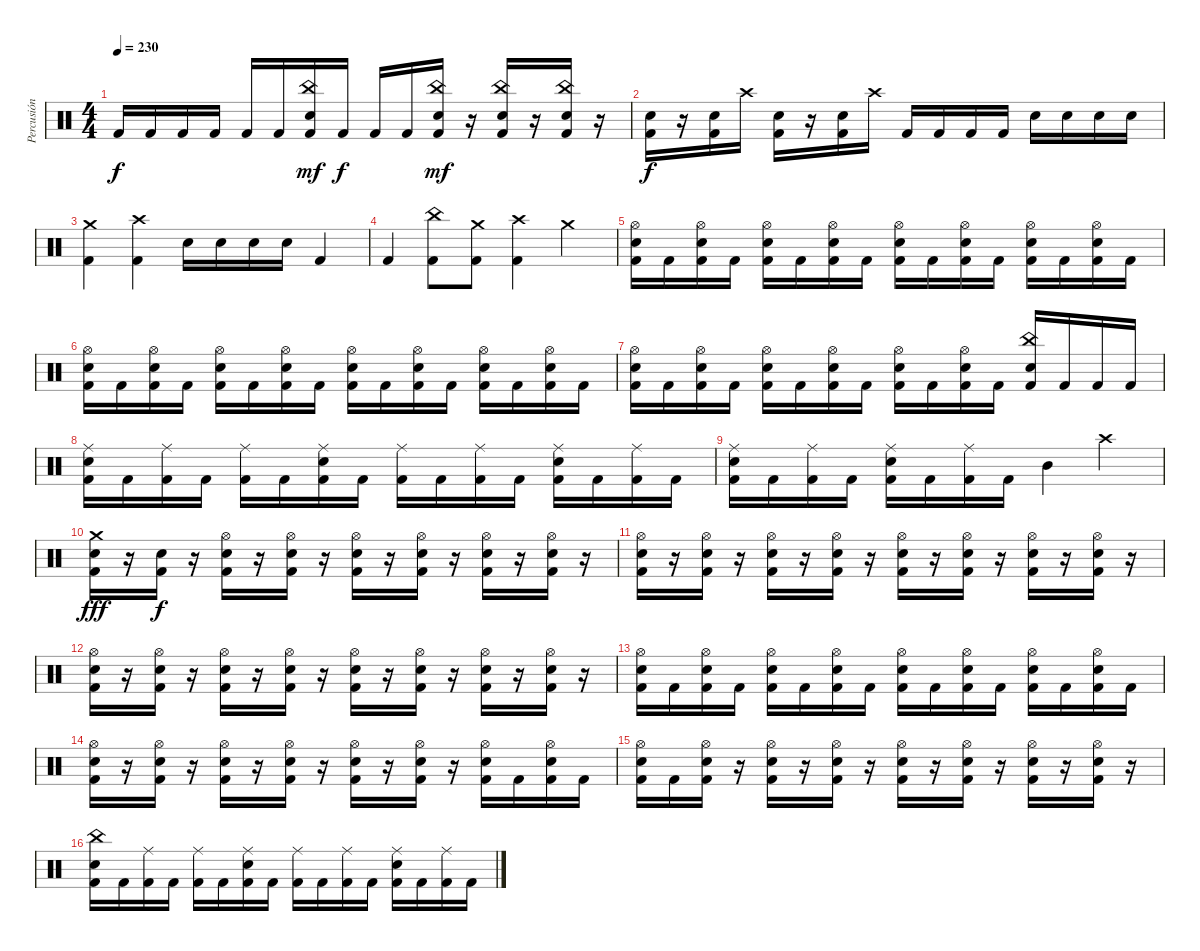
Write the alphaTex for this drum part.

\track ("Percusión" "Percusión") {instrument percussion}
\staff {score}
\articulation defaults
\ts (4 4)
\tempo 230
\clef neutral
\ks c "Kick (hit) 2".16{dy f} "Kick (hit) 2".16 "Kick (hit) 2".16 "Kick (hit) 2".16 "Kick (hit) 2".16 "Kick (hit) 2".16
("China (hit)" "Kick (hit) 2" "Snare (hit) 2").16{dy mf} "Kick (hit) 2".16{dy f} "Kick (hit) 2".16 "Kick (hit) 2".16 ("China (hit)" "Kick (hit) 2" "Snare (hit) 2").16{dy mf} r.16 ("China (hit)" "Kick (hit) 2" "Snare (hit) 2").16 r.16 ("China (hit)" "Kick (hit) 2" "Snare (hit) 2").16 r.16 |
("Kick (hit) 2" "Snare (hit) 2").16{dy f} r.16 ("Kick (hit) 2" "Snare (hit) 2").16 "Crash high (hit)".16 ("Kick (hit) 2" "Snare (hit) 2").16 r.16 ("Kick (hit) 2" "Snare (hit) 2").16 "Crash high (hit)".16 "Kick (hit) 2".16 "Kick (hit) 2".16 "Kick (hit) 2".16 "Kick (hit) 2".16 "Snare (hit) 2".16 "Snare (hit) 2".16 "Snare (hit) 2".16 "Snare (hit) 2".16 |
("Crash medium (hit)" "Kick (hit) 2").4 ("Crash high (hit)" "Kick (hit) 2").4 "Snare (hit) 2".16 "Snare (hit) 2".16 "Snare (hit) 2".16 "Snare (hit) 2".16 "Kick (hit) 2".4 |
"Kick (hit) 2".4 ("China (hit)" "Kick (hit) 2").8 ("Crash medium (hit)" "Kick (hit) 2").8 ("Crash high (hit)" "Kick (hit) 2").4 "Crash medium (hit)".4 |
("Hi-Hat (open)" "Kick (hit) 2" "Snare (hit) 2").16 "Kick (hit) 2".16 ("Hi-Hat (open)" "Kick (hit) 2" "Snare (hit) 2").16 "Kick (hit) 2".16 ("Hi-Hat (open)" "Kick (hit) 2" "Snare (hit) 2").16 "Kick (hit) 2".16 ("Hi-Hat (open)" "Kick (hit) 2" "Snare (hit) 2").16 "Kick (hit) 2".16 ("Hi-Hat (open)" "Kick (hit) 2" "Snare (hit) 2").16 "Kick (hit) 2".16 ("Hi-Hat (open)" "Kick (hit) 2" "Snare (hit) 2").16 "Kick (hit) 2".16 ("Hi-Hat (open)" "Kick (hit) 2" "Snare (hit) 2").16 "Kick (hit) 2".16 ("Hi-Hat (open)" "Kick (hit) 2" "Snare (hit) 2").16 "Kick (hit) 2".16 |
("Hi-Hat (open)" "Kick (hit) 2" "Snare (hit) 2").16 "Kick (hit) 2".16 ("Hi-Hat (open)" "Kick (hit) 2" "Snare (hit) 2").16 "Kick (hit) 2".16 ("Hi-Hat (open)" "Kick (hit) 2" "Snare (hit) 2").16 "Kick (hit) 2".16 ("Hi-Hat (open)" "Kick (hit) 2" "Snare (hit) 2").16 "Kick (hit) 2".16 ("Hi-Hat (open)" "Kick (hit) 2" "Snare (hit) 2").16 "Kick (hit) 2".16 ("Hi-Hat (open)" "Kick (hit) 2" "Snare (hit) 2").16 "Kick (hit) 2".16 ("Hi-Hat (open)" "Kick (hit) 2" "Snare (hit) 2").16 "Kick (hit) 2".16 ("Hi-Hat (open)" "Kick (hit) 2" "Snare (hit) 2").16 "Kick (hit) 2".16 |
("Hi-Hat (open)" "Kick (hit) 2" "Snare (hit) 2").16 "Kick (hit) 2".16 ("Hi-Hat (open)" "Kick (hit) 2" "Snare (hit) 2").16 "Kick (hit) 2".16 ("Hi-Hat (open)" "Kick (hit) 2" "Snare (hit) 2").16 "Kick (hit) 2".16 ("Hi-Hat (open)" "Kick (hit) 2" "Snare (hit) 2").16 "Kick (hit) 2".16 ("Hi-Hat (open)" "Kick (hit) 2" "Snare (hit) 2").16 "Kick (hit) 2".16 ("Hi-Hat (open)" "Kick (hit) 2" "Snare (hit) 2").16 "Kick (hit) 2".16 ("China (hit)" "Kick (hit) 2" "Snare (hit) 2").16 "Kick (hit) 2".16 "Kick (hit) 2".16 "Kick (hit) 2".16 |
("Ride (middle)" "Kick (hit) 2" "Snare (hit) 2").16 "Kick (hit) 2".16 ("Ride (middle)" "Kick (hit) 2").16 "Kick (hit) 2".16 ("Ride (middle)" "Kick (hit) 2").16 "Kick (hit) 2".16 ("Ride (middle)" "Kick (hit) 2" "Snare (hit) 2").16 "Kick (hit) 2".16 ("Ride (middle)" "Kick (hit) 2").16 "Kick (hit) 2".16 ("Ride (middle)" "Kick (hit) 2").16 "Kick (hit) 2".16 ("Ride (middle)" "Kick (hit) 2" "Snare (hit) 2").16 "Kick (hit) 2".16 ("Ride (middle)" "Kick (hit) 2").16 "Kick (hit) 2".16 |
("Ride (middle)" "Kick (hit) 2" "Snare (hit) 2").16 "Kick (hit) 2".16 ("Ride (middle)" "Kick (hit) 2").16 "Kick (hit) 2".16 ("Ride (middle)" "Kick (hit) 2" "Snare (hit) 2").16 "Kick (hit) 2".16 ("Ride (middle)" "Kick (hit) 2").16 "Kick (hit) 2".16 "Mid Tom (hit)".4 "Crash high (hit)".4 |
("Crash medium (hit)" "Kick (hit) 2" "Snare (hit) 2").16{dy fff} r.16 ("Kick (hit) 2" "Snare (hit) 2").16{dy f} r.16 ("Hi-Hat (open)" "Kick (hit) 2" "Snare (hit) 2").16 r.16 ("Hi-Hat (open)" "Kick (hit) 2" "Snare (hit) 2").16 r.16 ("Hi-Hat (open)" "Kick (hit) 2" "Snare (hit) 2").16 r.16 ("Hi-Hat (open)" "Kick (hit) 2" "Snare (hit) 2").16 r.16 ("Hi-Hat (open)" "Kick (hit) 2" "Snare (hit) 2").16 r.16 ("Hi-Hat (open)" "Kick (hit) 2" "Snare (hit) 2").16 r.16 |
("Hi-Hat (open)" "Kick (hit) 2" "Snare (hit) 2").16 r.16 ("Hi-Hat (open)" "Kick (hit) 2" "Snare (hit) 2").16 r.16 ("Hi-Hat (open)" "Kick (hit) 2" "Snare (hit) 2").16 r.16 ("Hi-Hat (open)" "Kick (hit) 2" "Snare (hit) 2").16 r.16 ("Hi-Hat (open)" "Kick (hit) 2" "Snare (hit) 2").16 r.16 ("Hi-Hat (open)" "Kick (hit) 2" "Snare (hit) 2").16 r.16 ("Hi-Hat (open)" "Kick (hit) 2" "Snare (hit) 2").16 r.16 ("Hi-Hat (open)" "Kick (hit) 2" "Snare (hit) 2").16 r.16 |
("Hi-Hat (open)" "Kick (hit) 2" "Snare (hit) 2").16 r.16 ("Hi-Hat (open)" "Kick (hit) 2" "Snare (hit) 2").16 r.16 ("Hi-Hat (open)" "Kick (hit) 2" "Snare (hit) 2").16 r.16 ("Hi-Hat (open)" "Kick (hit) 2" "Snare (hit) 2").16 r.16 ("Hi-Hat (open)" "Kick (hit) 2" "Snare (hit) 2").16 r.16 ("Hi-Hat (open)" "Kick (hit) 2" "Snare (hit) 2").16 r.16 ("Hi-Hat (open)" "Kick (hit) 2" "Snare (hit) 2").16 r.16 ("Hi-Hat (open)" "Kick (hit) 2" "Snare (hit) 2").16 r.16 |
("Hi-Hat (open)" "Kick (hit) 2" "Snare (hit) 2").16 "Kick (hit) 2".16 ("Hi-Hat (open)" "Kick (hit) 2" "Snare (hit) 2").16 "Kick (hit) 2".16 ("Hi-Hat (open)" "Kick (hit) 2" "Snare (hit) 2").16 "Kick (hit) 2".16 ("Hi-Hat (open)" "Kick (hit) 2" "Snare (hit) 2").16 "Kick (hit) 2".16 ("Hi-Hat (open)" "Kick (hit) 2" "Snare (hit) 2").16 "Kick (hit) 2".16 ("Hi-Hat (open)" "Kick (hit) 2" "Snare (hit) 2").16 "Kick (hit) 2".16 ("Hi-Hat (open)" "Kick (hit) 2" "Snare (hit) 2").16 "Kick (hit) 2".16 ("Hi-Hat (open)" "Kick (hit) 2" "Snare (hit) 2").16 "Kick (hit) 2".16 |
("Hi-Hat (open)" "Kick (hit) 2" "Snare (hit) 2").16 r.16 ("Hi-Hat (open)" "Kick (hit) 2" "Snare (hit) 2").16 r.16 ("Hi-Hat (open)" "Kick (hit) 2" "Snare (hit) 2").16 r.16 ("Hi-Hat (open)" "Kick (hit) 2" "Snare (hit) 2").16 r.16 ("Hi-Hat (open)" "Kick (hit) 2" "Snare (hit) 2").16 r.16 ("Hi-Hat (open)" "Kick (hit) 2" "Snare (hit) 2").16 r.16 ("Hi-Hat (open)" "Kick (hit) 2" "Snare (hit) 2").16 "Kick (hit) 2".16 ("Hi-Hat (open)" "Kick (hit) 2" "Snare (hit) 2").16 "Kick (hit) 2".16 |
("Hi-Hat (open)" "Kick (hit) 2" "Snare (hit) 2").16 "Kick (hit) 2".16 ("Hi-Hat (open)" "Kick (hit) 2" "Snare (hit) 2").16 r.16 ("Hi-Hat (open)" "Kick (hit) 2" "Snare (hit) 2").16 r.16 ("Hi-Hat (open)" "Kick (hit) 2" "Snare (hit) 2").16 r.16 ("Hi-Hat (open)" "Kick (hit) 2" "Snare (hit) 2").16 r.16 ("Hi-Hat (open)" "Kick (hit) 2" "Snare (hit) 2").16 r.16 ("Hi-Hat (open)" "Kick (hit) 2" "Snare (hit) 2").16 r.16 ("Hi-Hat (open)" "Kick (hit) 2" "Snare (hit) 2").16 r.16 |
("China (hit)" "Kick (hit) 2" "Snare (hit) 2").16 "Kick (hit) 2".16 ("Ride (middle)" "Kick (hit) 2").16 "Kick (hit) 2".16 ("Ride (middle)" "Kick (hit) 2").16 "Kick (hit) 2".16 ("Ride (middle)" "Kick (hit) 2" "Snare (hit) 2").16 "Kick (hit) 2".16 ("Ride (middle)" "Kick (hit) 2").16 "Kick (hit) 2".16 ("Ride (middle)" "Kick (hit) 2").16 "Kick (hit) 2".16 ("Ride (middle)" "Kick (hit) 2" "Snare (hit) 2").16 "Kick (hit) 2".16 ("Ride (middle)" "Kick (hit) 2").16 "Kick (hit) 2".16
